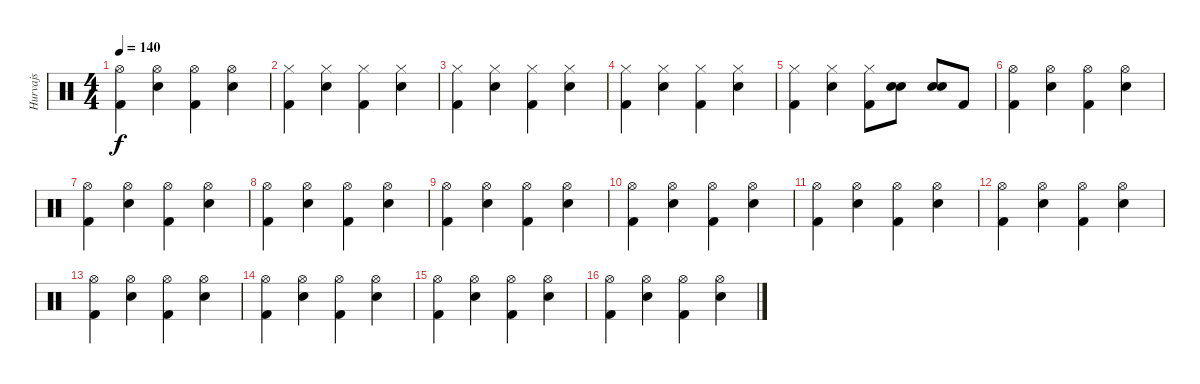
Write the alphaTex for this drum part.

\track ("Hurvajs" "Hurvajs") {instrument percussion}
\staff {score}
\articulation defaults
\ts (4 4)
\tempo 140
\clef neutral
\ks c
("Hi-Hat (open)" "Kick (hit) 2").4{dy f} ("Hi-Hat (open)" "Snare (hit) 2").4 ("Hi-Hat (open)" "Kick (hit) 2").4 ("Hi-Hat (open)" "Snare (hit) 2").4 |
("Hi-Hat (closed)" "Kick (hit) 2").4 ("Hi-Hat (closed)" "Snare (hit) 2").4 ("Hi-Hat (closed)" "Kick (hit) 2").4 ("Hi-Hat (closed)" "Snare (hit) 2").4 |
("Hi-Hat (closed)" "Kick (hit) 2").4 ("Hi-Hat (closed)" "Snare (hit) 2").4 ("Hi-Hat (closed)" "Kick (hit) 2").4 ("Hi-Hat (closed)" "Snare (hit) 2").4 |
("Hi-Hat (closed)" "Kick (hit) 2").4 ("Hi-Hat (closed)" "Snare (hit) 2").4 ("Hi-Hat (closed)" "Kick (hit) 2").4 ("Hi-Hat (closed)" "Snare (hit) 2").4 |
("Hi-Hat (closed)" "Kick (hit) 2").4 ("Hi-Hat (closed)" "Snare (hit) 2").4 ("Hi-Hat (closed)" "Kick (hit) 2").8 ("Snare (hit) 2" "Snare (hit) 2").8 ("Snare (hit) 2" "Snare (hit) 2").8 "Kick (hit) 2".8 |
("Hi-Hat (open)" "Kick (hit) 2").4 ("Hi-Hat (open)" "Snare (hit) 2").4 ("Hi-Hat (open)" "Kick (hit) 2").4 ("Hi-Hat (open)" "Snare (hit) 2").4 |
("Hi-Hat (open)" "Kick (hit) 2").4 ("Hi-Hat (open)" "Snare (hit) 2").4 ("Hi-Hat (open)" "Kick (hit) 2").4 ("Hi-Hat (open)" "Snare (hit) 2").4 |
("Hi-Hat (open)" "Kick (hit) 2").4 ("Hi-Hat (open)" "Snare (hit) 2").4 ("Hi-Hat (open)" "Kick (hit) 2").4 ("Hi-Hat (open)" "Snare (hit) 2").4 |
("Hi-Hat (open)" "Kick (hit) 2").4 ("Hi-Hat (open)" "Snare (hit) 2").4 ("Hi-Hat (open)" "Kick (hit) 2").4 ("Hi-Hat (open)" "Snare (hit) 2").4 |
("Hi-Hat (open)" "Kick (hit) 2").4 ("Hi-Hat (open)" "Snare (hit) 2").4 ("Hi-Hat (open)" "Kick (hit) 2").4 ("Hi-Hat (open)" "Snare (hit) 2").4 |
("Hi-Hat (open)" "Kick (hit) 2").4 ("Hi-Hat (open)" "Snare (hit) 2").4 ("Hi-Hat (open)" "Kick (hit) 2").4 ("Hi-Hat (open)" "Snare (hit) 2").4 |
("Hi-Hat (open)" "Kick (hit) 2").4 ("Hi-Hat (open)" "Snare (hit) 2").4 ("Hi-Hat (open)" "Kick (hit) 2").4 ("Hi-Hat (open)" "Snare (hit) 2").4 |
("Hi-Hat (open)" "Kick (hit) 2").4 ("Hi-Hat (open)" "Snare (hit) 2").4 ("Hi-Hat (open)" "Kick (hit) 2").4 ("Hi-Hat (open)" "Snare (hit) 2").4 |
("Hi-Hat (open)" "Kick (hit) 2").4 ("Hi-Hat (open)" "Snare (hit) 2").4 ("Hi-Hat (open)" "Kick (hit) 2").4 ("Hi-Hat (open)" "Snare (hit) 2").4 |
("Hi-Hat (open)" "Kick (hit) 2").4 ("Hi-Hat (open)" "Snare (hit) 2").4 ("Hi-Hat (open)" "Kick (hit) 2").4 ("Hi-Hat (open)" "Snare (hit) 2").4 |
("Hi-Hat (open)" "Kick (hit) 2").4 ("Hi-Hat (open)" "Snare (hit) 2").4 ("Hi-Hat (open)" "Kick (hit) 2").4 ("Hi-Hat (open)" "Snare (hit) 2").4
